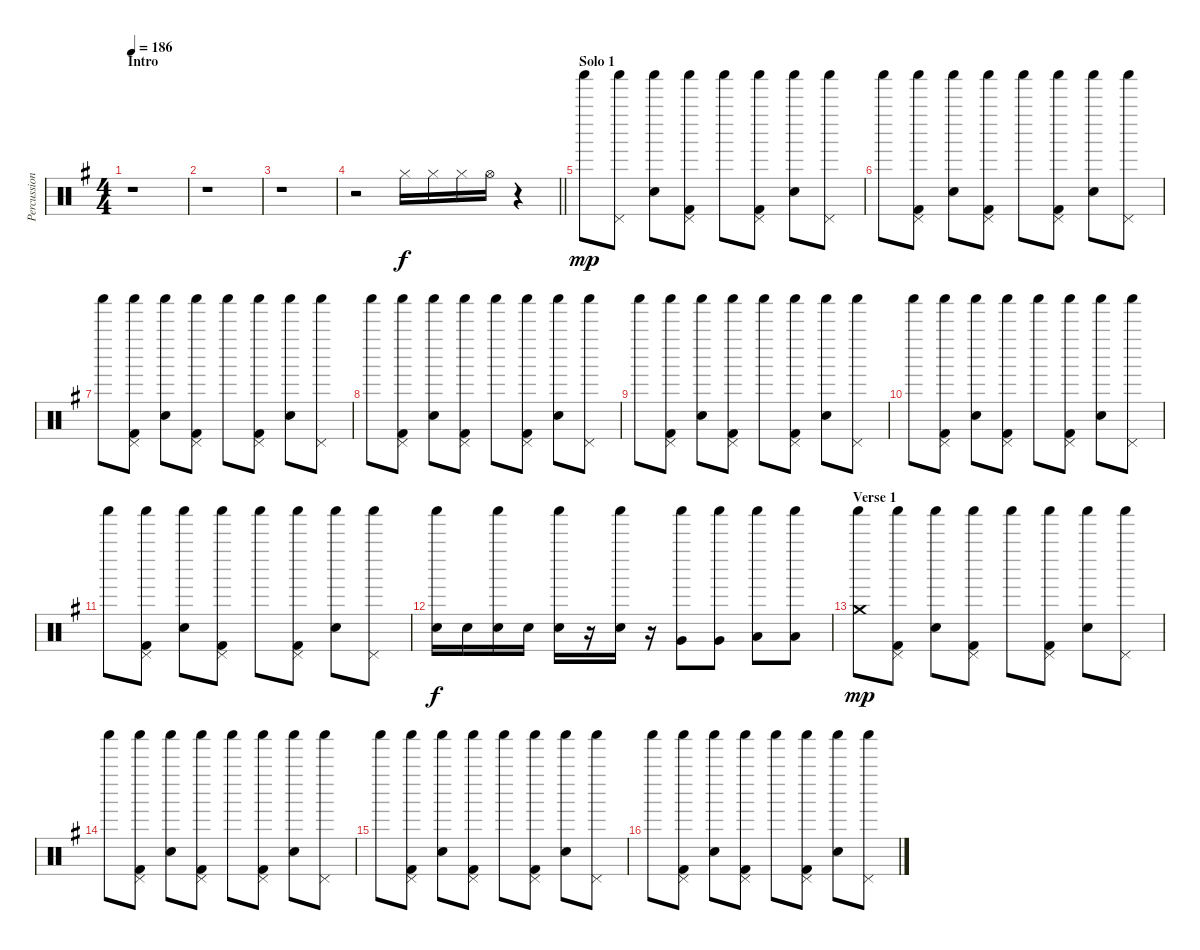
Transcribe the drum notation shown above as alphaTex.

\track ("Percussion" "Percussion") {instrument percussion}
\staff {score}
\articulation defaults
\ts (4 4)
\section ("" "Intro")
\tempo 186
\clef neutral
\ks g
r.1{dy f} |
r.1 |
r.1 |
\barLineRight lightlight
r.2 "Hi-Hat (closed)".16 "Hi-Hat (closed)".16 "Hi-Hat (closed)".16 "Hi-Hat (open)".16 r.4 |
\section ("" "Solo 1")
"Shaker (hit)".8{dy mp} ("Shaker (hit)" "Pedal Hi-Hat (hit)").8 ("Shaker (hit)" "Electric Snare (hit)").8 ("Shaker (hit)" "Pedal Hi-Hat (hit)" "Kick (hit) 2").8 "Shaker (hit)".8 ("Shaker (hit)" "Pedal Hi-Hat (hit)" "Kick (hit) 2").8 ("Shaker (hit)" "Electric Snare (hit)").8 ("Shaker (hit)" "Pedal Hi-Hat (hit)").8 |
"Shaker (hit)".8 ("Shaker (hit)" "Pedal Hi-Hat (hit)" "Kick (hit) 2").8 ("Shaker (hit)" "Electric Snare (hit)").8 ("Shaker (hit)" "Pedal Hi-Hat (hit)" "Kick (hit) 2").8 "Shaker (hit)".8 ("Shaker (hit)" "Pedal Hi-Hat (hit)" "Kick (hit) 2").8 ("Shaker (hit)" "Electric Snare (hit)").8 ("Shaker (hit)" "Pedal Hi-Hat (hit)").8 |
"Shaker (hit)".8 ("Shaker (hit)" "Pedal Hi-Hat (hit)" "Kick (hit) 2").8 ("Shaker (hit)" "Electric Snare (hit)").8 ("Shaker (hit)" "Pedal Hi-Hat (hit)" "Kick (hit) 2").8 "Shaker (hit)".8 ("Shaker (hit)" "Pedal Hi-Hat (hit)" "Kick (hit) 2").8 ("Shaker (hit)" "Electric Snare (hit)").8 ("Shaker (hit)" "Pedal Hi-Hat (hit)").8 |
"Shaker (hit)".8 ("Shaker (hit)" "Pedal Hi-Hat (hit)" "Kick (hit) 2").8 ("Shaker (hit)" "Electric Snare (hit)").8 ("Shaker (hit)" "Pedal Hi-Hat (hit)" "Kick (hit) 2").8 "Shaker (hit)".8 ("Shaker (hit)" "Pedal Hi-Hat (hit)" "Kick (hit) 2").8 ("Shaker (hit)" "Electric Snare (hit)").8 ("Shaker (hit)" "Pedal Hi-Hat (hit)").8 |
"Shaker (hit)".8 ("Shaker (hit)" "Pedal Hi-Hat (hit)" "Kick (hit) 2").8 ("Shaker (hit)" "Electric Snare (hit)").8 ("Shaker (hit)" "Pedal Hi-Hat (hit)" "Kick (hit) 2").8 "Shaker (hit)".8 ("Shaker (hit)" "Pedal Hi-Hat (hit)" "Kick (hit) 2").8 ("Shaker (hit)" "Electric Snare (hit)").8 ("Shaker (hit)" "Pedal Hi-Hat (hit)").8 |
"Shaker (hit)".8 ("Shaker (hit)" "Pedal Hi-Hat (hit)" "Kick (hit) 2").8 ("Shaker (hit)" "Electric Snare (hit)").8 ("Shaker (hit)" "Pedal Hi-Hat (hit)" "Kick (hit) 2").8 "Shaker (hit)".8 ("Shaker (hit)" "Pedal Hi-Hat (hit)" "Kick (hit) 2").8 ("Shaker (hit)" "Electric Snare (hit)").8 ("Shaker (hit)" "Pedal Hi-Hat (hit)").8 |
"Shaker (hit)".8 ("Shaker (hit)" "Pedal Hi-Hat (hit)" "Kick (hit) 2").8 ("Shaker (hit)" "Electric Snare (hit)").8 ("Shaker (hit)" "Pedal Hi-Hat (hit)" "Kick (hit) 2").8 "Shaker (hit)".8 ("Shaker (hit)" "Pedal Hi-Hat (hit)" "Kick (hit) 2").8 ("Shaker (hit)" "Electric Snare (hit)").8 ("Shaker (hit)" "Pedal Hi-Hat (hit)").8 |
("Shaker (hit)" "Electric Snare (hit)").16{dy f} "Electric Snare (hit)".16 ("Shaker (hit)" "Electric Snare (hit)").16 "Electric Snare (hit)".16 ("Shaker (hit)" "Electric Snare (hit)").16 r.16 ("Shaker (hit)" "Electric Snare (hit)").16 r.16 ("Shaker (hit)" "Very Low Tom (hit)").8 ("Shaker (hit)" "Very Low Tom (hit)").8 ("Shaker (hit)" "Low Floor Tom (hit)").8 ("Shaker (hit)" "Low Floor Tom (hit)").8 |
\section ("" "Verse 1")
("Shaker (hit)" "Crash medium (hit)").8{dy mp} ("Shaker (hit)" "Pedal Hi-Hat (hit)" "Kick (hit) 2").8 ("Shaker (hit)" "Electric Snare (hit)").8 ("Shaker (hit)" "Pedal Hi-Hat (hit)" "Kick (hit) 2").8 "Shaker (hit)".8 ("Shaker (hit)" "Pedal Hi-Hat (hit)" "Kick (hit) 2").8 ("Shaker (hit)" "Electric Snare (hit)").8 ("Shaker (hit)" "Pedal Hi-Hat (hit)").8 |
"Shaker (hit)".8 ("Shaker (hit)" "Pedal Hi-Hat (hit)" "Kick (hit) 2").8 ("Shaker (hit)" "Electric Snare (hit)").8 ("Shaker (hit)" "Pedal Hi-Hat (hit)" "Kick (hit) 2").8 "Shaker (hit)".8 ("Shaker (hit)" "Pedal Hi-Hat (hit)" "Kick (hit) 2").8 ("Shaker (hit)" "Electric Snare (hit)").8 ("Shaker (hit)" "Pedal Hi-Hat (hit)").8 |
"Shaker (hit)".8 ("Shaker (hit)" "Pedal Hi-Hat (hit)" "Kick (hit) 2").8 ("Shaker (hit)" "Electric Snare (hit)").8 ("Shaker (hit)" "Pedal Hi-Hat (hit)" "Kick (hit) 2").8 "Shaker (hit)".8 ("Shaker (hit)" "Pedal Hi-Hat (hit)" "Kick (hit) 2").8 ("Shaker (hit)" "Electric Snare (hit)").8 ("Shaker (hit)" "Pedal Hi-Hat (hit)").8 |
"Shaker (hit)".8 ("Shaker (hit)" "Pedal Hi-Hat (hit)" "Kick (hit) 2").8 ("Shaker (hit)" "Electric Snare (hit)").8 ("Shaker (hit)" "Pedal Hi-Hat (hit)" "Kick (hit) 2").8 "Shaker (hit)".8 ("Shaker (hit)" "Pedal Hi-Hat (hit)" "Kick (hit) 2").8 ("Shaker (hit)" "Electric Snare (hit)").8 ("Shaker (hit)" "Pedal Hi-Hat (hit)").8
